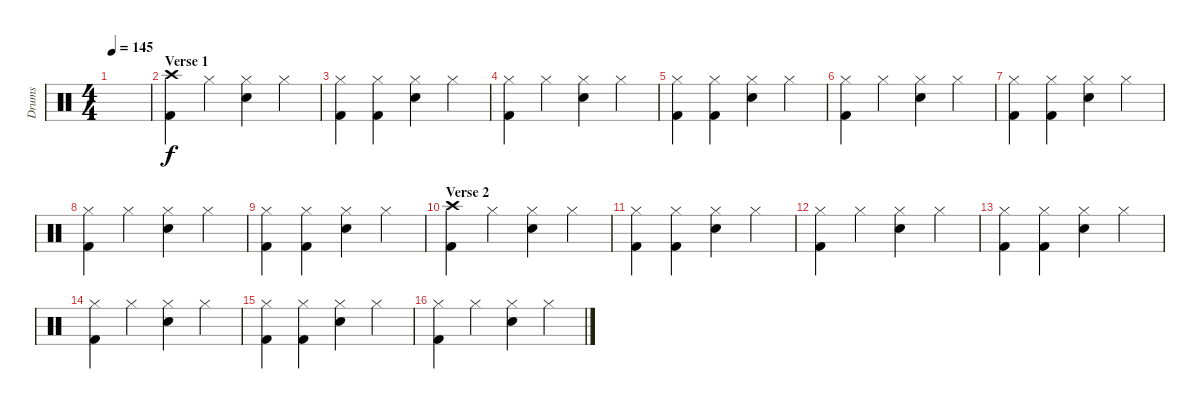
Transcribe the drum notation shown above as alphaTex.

\track ("Drums" "Drums") {instrument percussion}
\staff {score}
\articulation defaults
\ts (4 4)
\tempo 145
\clef neutral
\ks c
|
\section ("" "Verse 1")
("Crash high (hit)" "Kick (hit) 2").4 "Hi-Hat (closed)".4 ("Hi-Hat (closed)" "Electric Snare (hit)").4 "Hi-Hat (closed)".4 |
("Hi-Hat (closed)" "Kick (hit) 2").4 ("Hi-Hat (closed)" "Kick (hit) 2").4 ("Hi-Hat (closed)" "Electric Snare (hit)").4 "Hi-Hat (closed)".4 |
("Hi-Hat (closed)" "Kick (hit) 2").4 "Hi-Hat (closed)".4 ("Hi-Hat (closed)" "Electric Snare (hit)").4 "Hi-Hat (closed)".4 |
("Hi-Hat (closed)" "Kick (hit) 2").4 ("Hi-Hat (closed)" "Kick (hit) 2").4 ("Hi-Hat (closed)" "Electric Snare (hit)").4 "Hi-Hat (closed)".4 |
("Hi-Hat (closed)" "Kick (hit) 2").4 "Hi-Hat (closed)".4 ("Hi-Hat (closed)" "Electric Snare (hit)").4 "Hi-Hat (closed)".4 |
("Hi-Hat (closed)" "Kick (hit) 2").4 ("Hi-Hat (closed)" "Kick (hit) 2").4 ("Hi-Hat (closed)" "Electric Snare (hit)").4 "Hi-Hat (closed)".4 |
("Hi-Hat (closed)" "Kick (hit) 2").4 "Hi-Hat (closed)".4 ("Hi-Hat (closed)" "Electric Snare (hit)").4 "Hi-Hat (closed)".4 |
("Hi-Hat (closed)" "Kick (hit) 2").4 ("Hi-Hat (closed)" "Kick (hit) 2").4 ("Hi-Hat (closed)" "Electric Snare (hit)").4 "Hi-Hat (closed)".4 |
\section ("" "Verse 2")
("Crash high (hit)" "Kick (hit) 2").4 "Hi-Hat (closed)".4 ("Hi-Hat (closed)" "Electric Snare (hit)").4 "Hi-Hat (closed)".4 |
("Hi-Hat (closed)" "Kick (hit) 2").4 ("Hi-Hat (closed)" "Kick (hit) 2").4 ("Hi-Hat (closed)" "Electric Snare (hit)").4 "Hi-Hat (closed)".4 |
("Hi-Hat (closed)" "Kick (hit) 2").4 "Hi-Hat (closed)".4 ("Hi-Hat (closed)" "Electric Snare (hit)").4 "Hi-Hat (closed)".4 |
("Hi-Hat (closed)" "Kick (hit) 2").4 ("Hi-Hat (closed)" "Kick (hit) 2").4 ("Hi-Hat (closed)" "Electric Snare (hit)").4 "Hi-Hat (closed)".4 |
("Hi-Hat (closed)" "Kick (hit) 2").4 "Hi-Hat (closed)".4 ("Hi-Hat (closed)" "Electric Snare (hit)").4 "Hi-Hat (closed)".4 |
("Hi-Hat (closed)" "Kick (hit) 2").4 ("Hi-Hat (closed)" "Kick (hit) 2").4 ("Hi-Hat (closed)" "Electric Snare (hit)").4 "Hi-Hat (closed)".4 |
("Hi-Hat (closed)" "Kick (hit) 2").4 "Hi-Hat (closed)".4 ("Hi-Hat (closed)" "Electric Snare (hit)").4 "Hi-Hat (closed)".4
